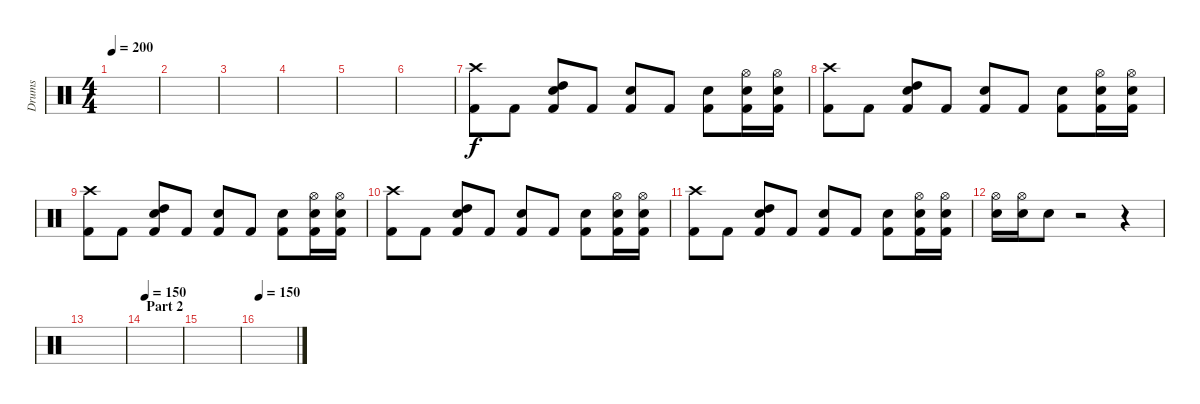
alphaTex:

\track ("Drums" "Drums") {instrument percussion}
\staff {score}
\articulation defaults
\ts (4 4)
\tempo 200
\clef neutral
\ks c
|
|
|
|
|
|
("Kick (hit) 2" "Crash high (hit)").8 "Kick (hit) 2".8 ("Kick (hit) 2" "Electric Snare (hit)" "High Tom (hit)").8 "Kick (hit) 2".8 ("Kick (hit) 2" "Electric Snare (hit)").8 "Kick (hit) 2".8 ("Kick (hit) 2" "Electric Snare (hit)").8 ("Kick (hit) 2" "Hi-Hat (open)" "Electric Snare (hit)").16 ("Kick (hit) 2" "Hi-Hat (open)" "Electric Snare (hit)").16 |
("Kick (hit) 2" "Crash high (hit)").8 "Kick (hit) 2".8 ("Kick (hit) 2" "Electric Snare (hit)" "High Tom (hit)").8 "Kick (hit) 2".8 ("Kick (hit) 2" "Electric Snare (hit)").8 "Kick (hit) 2".8 ("Kick (hit) 2" "Electric Snare (hit)").8 ("Kick (hit) 2" "Hi-Hat (open)" "Electric Snare (hit)").16 ("Kick (hit) 2" "Hi-Hat (open)" "Electric Snare (hit)").16 |
("Kick (hit) 2" "Crash high (hit)").8 "Kick (hit) 2".8 ("Kick (hit) 2" "Electric Snare (hit)" "High Tom (hit)").8 "Kick (hit) 2".8 ("Kick (hit) 2" "Electric Snare (hit)").8 "Kick (hit) 2".8 ("Kick (hit) 2" "Electric Snare (hit)").8 ("Kick (hit) 2" "Hi-Hat (open)" "Electric Snare (hit)").16 ("Kick (hit) 2" "Hi-Hat (open)" "Electric Snare (hit)").16 |
("Kick (hit) 2" "Crash high (hit)").8 "Kick (hit) 2".8 ("Kick (hit) 2" "Electric Snare (hit)" "High Tom (hit)").8 "Kick (hit) 2".8 ("Kick (hit) 2" "Electric Snare (hit)").8 "Kick (hit) 2".8 ("Kick (hit) 2" "Electric Snare (hit)").8 ("Kick (hit) 2" "Hi-Hat (open)" "Electric Snare (hit)").16 ("Kick (hit) 2" "Hi-Hat (open)" "Electric Snare (hit)").16 |
("Kick (hit) 2" "Crash high (hit)").8 "Kick (hit) 2".8 ("Kick (hit) 2" "Electric Snare (hit)" "High Tom (hit)").8 "Kick (hit) 2".8 ("Kick (hit) 2" "Electric Snare (hit)").8 "Kick (hit) 2".8 ("Kick (hit) 2" "Electric Snare (hit)").8 ("Kick (hit) 2" "Hi-Hat (open)" "Electric Snare (hit)").16 ("Kick (hit) 2" "Hi-Hat (open)" "Electric Snare (hit)").16 |
("Hi-Hat (open)" "Electric Snare (hit)").16 ("Hi-Hat (open)" "Electric Snare (hit)").16 "Electric Snare (hit)".8 r.2 r.4 |
|
\section ("" "Part 2")
\tempo 150
|
|
\tempo 150
